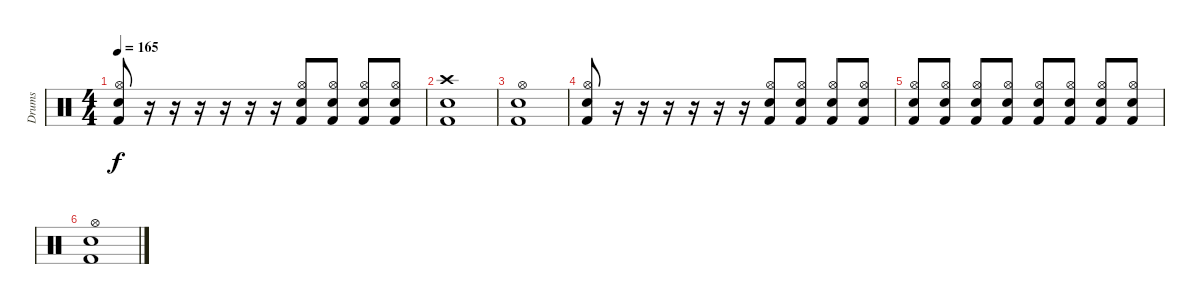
\track ("Drums" "Drums") {instrument percussion}
\staff {score}
\articulation defaults
\ts (4 4)
\tempo 165
\clef neutral
\ks c
("Kick (hit) 2" "Hi-Hat (open)" "Snare (hit) 2").8{dy f} r.16 r.16 r.16 r.16 r.16 r.16 ("Kick (hit) 2" "Hi-Hat (open)" "Snare (hit) 2").8 ("Kick (hit) 2" "Hi-Hat (open)" "Snare (hit) 2").8 ("Kick (hit) 2" "Hi-Hat (open)" "Snare (hit) 2").8 ("Kick (hit) 2" "Hi-Hat (open)" "Snare (hit) 2").8 |
("Snare (hit) 2" "Kick (hit) 2" "Crash high (hit)").1 |
("Snare (hit) 2" "Kick (hit) 2" "Hi-Hat (open)").1 |
("Kick (hit) 2" "Hi-Hat (open)" "Snare (hit) 2").8 r.16 r.16 r.16 r.16 r.16 r.16 ("Kick (hit) 2" "Hi-Hat (open)" "Snare (hit) 2").8 ("Kick (hit) 2" "Hi-Hat (open)" "Snare (hit) 2").8 ("Kick (hit) 2" "Hi-Hat (open)" "Snare (hit) 2").8 ("Kick (hit) 2" "Hi-Hat (open)" "Snare (hit) 2").8 |
("Kick (hit) 2" "Hi-Hat (open)" "Snare (hit) 2").8 ("Kick (hit) 2" "Hi-Hat (open)" "Snare (hit) 2").8 ("Kick (hit) 2" "Hi-Hat (open)" "Snare (hit) 2").8 ("Kick (hit) 2" "Hi-Hat (open)" "Snare (hit) 2").8 ("Kick (hit) 2" "Hi-Hat (open)" "Snare (hit) 2").8 ("Kick (hit) 2" "Hi-Hat (open)" "Snare (hit) 2").8 ("Kick (hit) 2" "Hi-Hat (open)" "Snare (hit) 2").8 ("Kick (hit) 2" "Hi-Hat (open)" "Snare (hit) 2").8 |
("Kick (hit) 2" "Hi-Hat (open)" "Snare (hit) 2").1
